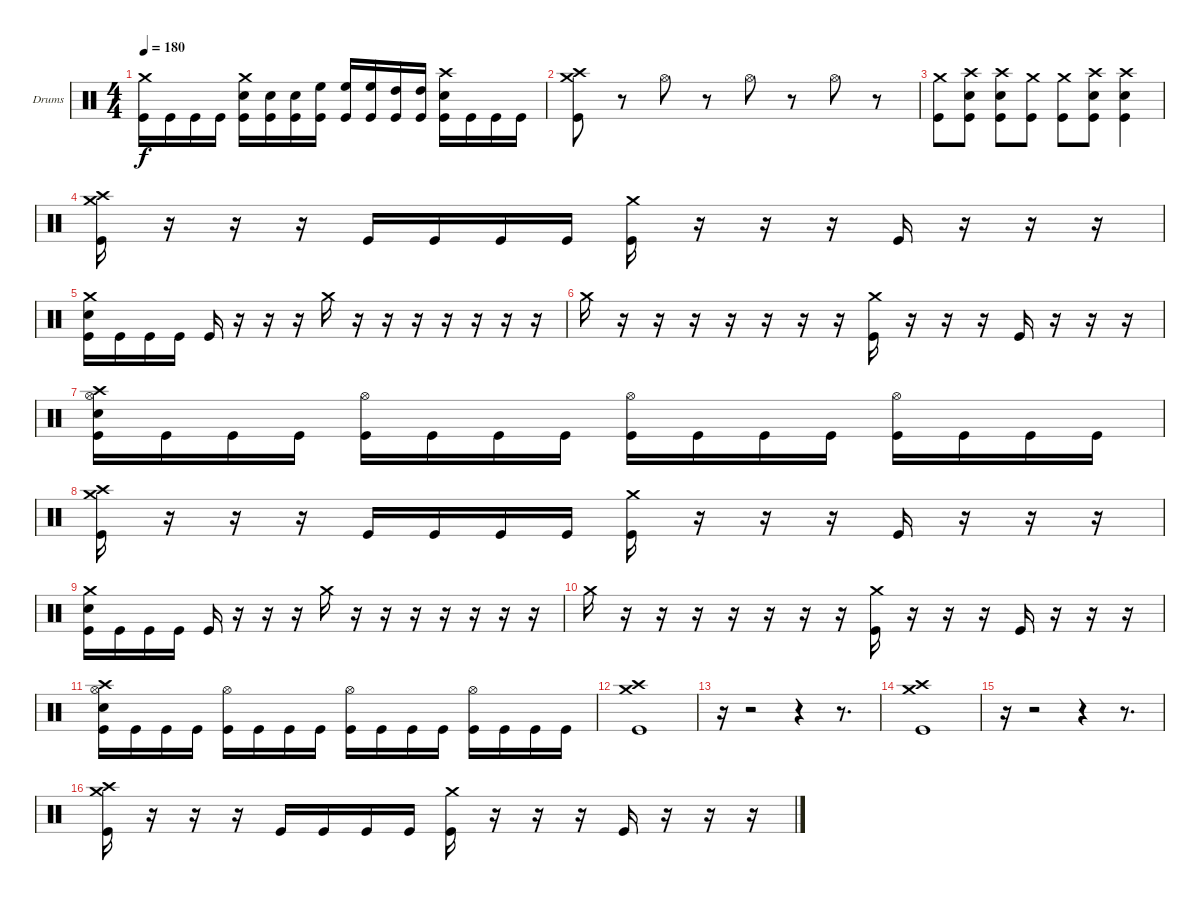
\bracketExtendMode groupsimilarinstruments
\firstSystemTrackNameOrientation horizontal
\otherSystemsTrackNameOrientation horizontal
\track ("Drumkit" "Drums") {instrument percussion}
\staff {score}
\articulation defaults
\ts (4 4)
\tempo 180
\clef neutral
\ks c
("Crash medium (hit)" "Kick (hit)").16{dy f} "Kick (hit)".16 "Kick (hit)".16 "Kick (hit)".16 ("Crash medium (hit)" "Snare (hit) 2" "Kick (hit)").16 ("Snare (hit) 2" "Kick (hit)").16 ("Snare (hit) 2" "Kick (hit)").16 ("High Floor Tom (hit)" "Kick (hit)").16 ("High Floor Tom (hit)" "Kick (hit)").16 ("High Floor Tom (hit)" "Kick (hit)").16 ("High Tom (hit)" "Kick (hit)").16 ("High Tom (hit)" "Kick (hit)").16 ("Crash high (hit)" "Snare (hit) 2" "Kick (hit)").16 "Kick (hit)".16 "Kick (hit)".16 "Kick (hit)".16 |
("Crash high (hit)" "Crash medium (hit)" "Kick (hit)").8 r.8 "Hi-Hat (open)".8 r.8 "Hi-Hat (open)".8 r.8 "Hi-Hat (open)".8 r.8 |
("Crash medium (hit)" "Kick (hit)").8 ("Crash high (hit)" "Snare (hit) 2" "Kick (hit)").8 ("Crash high (hit)" "Snare (hit) 2" "Kick (hit)").8 ("Crash medium (hit)" "Kick (hit)").8 ("Crash medium (hit)" "Kick (hit)").8 ("Crash high (hit)" "Snare (hit) 2" "Kick (hit)").8 ("Crash high (hit)" "Snare (hit) 2" "Kick (hit)").4 |
("Crash high (hit)" "Crash medium (hit)" "Kick (hit)").16 r.16 r.16 r.16 "Kick (hit)".16 "Kick (hit)".16 "Kick (hit)".16 "Kick (hit)".16 ("Crash medium (hit)" "Kick (hit)").16 r.16 r.16 r.16 "Kick (hit)".16 r.16 r.16 r.16 |
("Crash medium (hit)" "Snare (hit) 2" "Kick (hit)").16 "Kick (hit)".16 "Kick (hit)".16 "Kick (hit)".16 "Kick (hit)".16 r.16 r.16 r.16 "Crash medium (hit)".16 r.16 r.16 r.16 r.16 r.16 r.16 r.16 |
"Crash medium (hit)".16 r.16 r.16 r.16 r.16 r.16 r.16 r.16 ("Crash medium (hit)" "Kick (hit)").16 r.16 r.16 r.16 "Kick (hit)".16 r.16 r.16 r.16 |
("Crash high (hit)" "Hi-Hat (open)" "Snare (hit) 2" "Kick (hit)").16 "Kick (hit)".16 "Kick (hit)".16 "Kick (hit)".16 ("Hi-Hat (open)" "Kick (hit)").16 "Kick (hit)".16 "Kick (hit)".16 "Kick (hit)".16 ("Hi-Hat (open)" "Kick (hit)").16 "Kick (hit)".16 "Kick (hit)".16 "Kick (hit)".16 ("Hi-Hat (open)" "Kick (hit)").16 "Kick (hit)".16 "Kick (hit)".16 "Kick (hit)".16 |
("Crash high (hit)" "Crash medium (hit)" "Kick (hit)").16 r.16 r.16 r.16 "Kick (hit)".16 "Kick (hit)".16 "Kick (hit)".16 "Kick (hit)".16 ("Crash medium (hit)" "Kick (hit)").16 r.16 r.16 r.16 "Kick (hit)".16 r.16 r.16 r.16 |
("Crash medium (hit)" "Snare (hit) 2" "Kick (hit)").16 "Kick (hit)".16 "Kick (hit)".16 "Kick (hit)".16 "Kick (hit)".16 r.16 r.16 r.16 "Crash medium (hit)".16 r.16 r.16 r.16 r.16 r.16 r.16 r.16 |
"Crash medium (hit)".16 r.16 r.16 r.16 r.16 r.16 r.16 r.16 ("Crash medium (hit)" "Kick (hit)").16 r.16 r.16 r.16 "Kick (hit)".16 r.16 r.16 r.16 |
("Crash high (hit)" "Hi-Hat (open)" "Snare (hit) 2" "Kick (hit)").16 "Kick (hit)".16 "Kick (hit)".16 "Kick (hit)".16 ("Hi-Hat (open)" "Kick (hit)").16 "Kick (hit)".16 "Kick (hit)".16 "Kick (hit)".16 ("Hi-Hat (open)" "Kick (hit)").16 "Kick (hit)".16 "Kick (hit)".16 "Kick (hit)".16 ("Hi-Hat (open)" "Kick (hit)").16 "Kick (hit)".16 "Kick (hit)".16 "Kick (hit)".16 |
("Crash high (hit)" "Crash medium (hit)" "Kick (hit)").1 |
r.16 r.2 r.4 r.8{d} |
("Crash high (hit)" "Crash medium (hit)" "Kick (hit)").1 |
r.16 r.2 r.4 r.8{d} |
("Crash high (hit)" "Crash medium (hit)" "Kick (hit)").16 r.16 r.16 r.16 "Kick (hit)".16 "Kick (hit)".16 "Kick (hit)".16 "Kick (hit)".16 ("Crash medium (hit)" "Kick (hit)").16 r.16 r.16 r.16 "Kick (hit)".16 r.16 r.16 r.16
